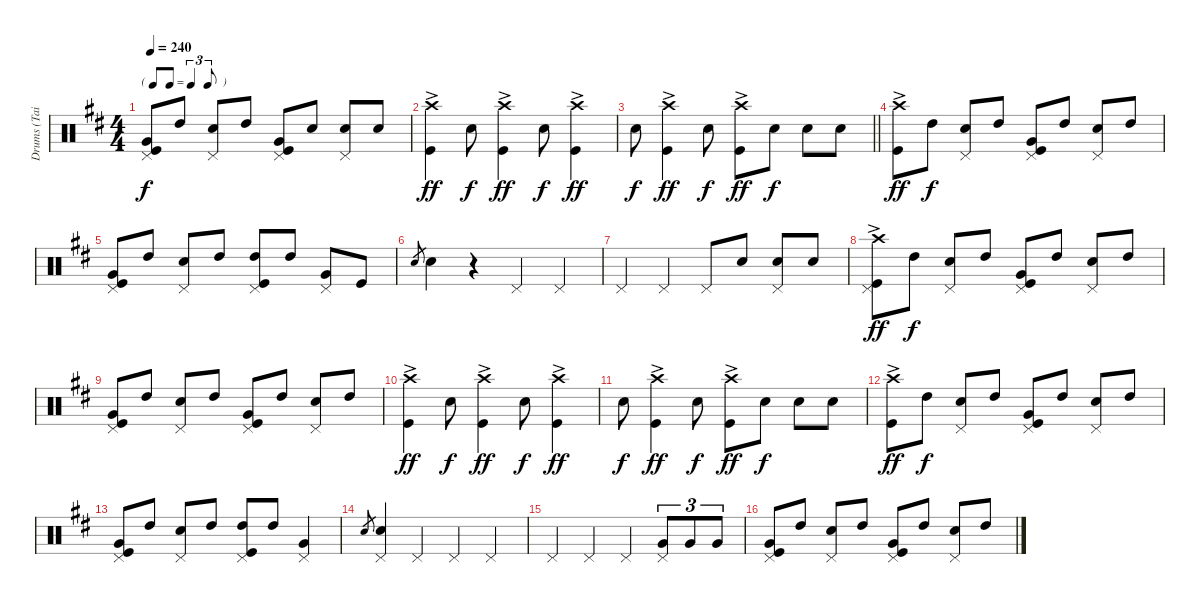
\track ("Drums (Tainaka Ritsu)" "Drums (Tai") {instrument percussion}
\staff {score}
\articulation defaults
\ts (4 4)
\tf triplet8th
\tempo 240
\clef neutral
\ks d
("Very Low Tom (hit)" "Kick (hit)" "Pedal Hi-Hat (hit)").8{dy f} "High Tom (hit)".8 ("Pedal Hi-Hat (hit)" "Snare (hit) 2").8 "High Tom (hit)".8 ("Pedal Hi-Hat (hit)" "Kick (hit)" "Very Low Tom (hit)").8 "Snare (hit) 2".8 ("Pedal Hi-Hat (hit)" "Snare (hit) 2").8 "Snare (hit) 2".8 |
("Crash high (hit)"{ac} "Kick (hit)").4{dy ff} "Snare (hit) 2".8{dy f} ("Kick (hit)" "Crash high (hit)"{ac}).4{dy ff} "Snare (hit) 2".8{dy f} ("Crash high (hit)"{ac} "Kick (hit)").4{dy ff} |
\barLineRight lightlight "Snare (hit) 2".8{dy f}
("Crash high (hit)"{ac} "Kick (hit)").4{dy ff} "Snare (hit) 2".8{dy f} ("Kick (hit)" "Crash high (hit)"{ac}).8{dy ff} "Snare (hit) 2".8{dy f} "Snare (hit) 2".8 "Snare (hit) 2".8 |
("Crash high (hit)"{ac} "Kick (hit)").8{dy ff} "High Tom (hit)".8{dy f} ("Snare (hit) 2" "Pedal Hi-Hat (hit)").8 "High Tom (hit)".8 ("Very Low Tom (hit)" "Kick (hit)" "Pedal Hi-Hat (hit)").8 "High Tom (hit)".8 ("Snare (hit) 2" "Pedal Hi-Hat (hit)").8 "High Tom (hit)".8 |
("Very Low Tom (hit)" "Kick (hit)" "Pedal Hi-Hat (hit)").8 "High Tom (hit)".8 ("Snare (hit) 2" "Pedal Hi-Hat (hit)").8 "High Tom (hit)".8 ("High Tom (hit)" "Kick (hit)" "Pedal Hi-Hat (hit)").8 "High Tom (hit)".8 ("Very Low Tom (hit)" "Pedal Hi-Hat (hit)").8 "Kick (hit)".8 |
"Snare (hit) 2".8{gr} "Snare (hit) 2".4 r.4 "Pedal Hi-Hat (hit)".4 "Pedal Hi-Hat (hit)".4 |
"Pedal Hi-Hat (hit)".4 "Pedal Hi-Hat (hit)".4 "Pedal Hi-Hat (hit)".8 "Snare (hit) 2".8 ("Snare (hit) 2" "Pedal Hi-Hat (hit)").8 "Snare (hit) 2".8 |
("Crash high (hit)"{ac} "Kick (hit)" "Pedal Hi-Hat (hit)").8{dy ff} "High Tom (hit)".8{dy f} ("Snare (hit) 2" "Pedal Hi-Hat (hit)").8 "High Tom (hit)".8 ("Very Low Tom (hit)" "Kick (hit)" "Pedal Hi-Hat (hit)").8 "High Tom (hit)".8 ("Snare (hit) 2" "Pedal Hi-Hat (hit)").8 "High Tom (hit)".8 |
("Very Low Tom (hit)" "Kick (hit)" "Pedal Hi-Hat (hit)").8 "High Tom (hit)".8 ("Snare (hit) 2" "Pedal Hi-Hat (hit)").8 "High Tom (hit)".8 ("Very Low Tom (hit)" "Kick (hit)" "Pedal Hi-Hat (hit)").8 "High Tom (hit)".8 ("Snare (hit) 2" "Pedal Hi-Hat (hit)").8 "High Tom (hit)".8 |
("Kick (hit)" "Crash high (hit)"{ac}).4{dy ff} "Snare (hit) 2".8{dy f} ("Crash high (hit)"{ac} "Kick (hit)").4{dy ff} "Snare (hit) 2".8{dy f} ("Kick (hit)" "Crash high (hit)"{ac}).4{dy ff} |
"Snare (hit) 2".8{dy f} ("Kick (hit)" "Crash high (hit)"{ac}).4{dy ff} "Snare (hit) 2".8{dy f} ("Crash high (hit)"{ac} "Kick (hit)").8{dy ff} "Snare (hit) 2".8{dy f} "Snare (hit) 2".8 "Snare (hit) 2".8 |
("Crash high (hit)"{ac} "Kick (hit)").8{dy ff} "High Tom (hit)".8{dy f} ("Snare (hit) 2" "Pedal Hi-Hat (hit)").8 "High Tom (hit)".8 ("Pedal Hi-Hat (hit)" "Kick (hit)" "Very Low Tom (hit)").8 "High Tom (hit)".8 ("Snare (hit) 2" "Pedal Hi-Hat (hit)").8 "High Tom (hit)".8 |
("Very Low Tom (hit)" "Kick (hit)" "Pedal Hi-Hat (hit)").8 "High Tom (hit)".8 ("Pedal Hi-Hat (hit)" "Snare (hit) 2").8 "High Tom (hit)".8 ("Kick (hit)" "Pedal Hi-Hat (hit)" "High Tom (hit)").8 "High Tom (hit)".8 ("Pedal Hi-Hat (hit)" "Very Low Tom (hit)").4 |
"Snare (hit) 2".8{gr} ("Snare (hit) 2" "Pedal Hi-Hat (hit)").4 "Pedal Hi-Hat (hit)".4 "Pedal Hi-Hat (hit)".4 "Pedal Hi-Hat (hit)".4 |
"Pedal Hi-Hat (hit)".4 "Pedal Hi-Hat (hit)".4 "Pedal Hi-Hat (hit)".4 ("Pedal Hi-Hat (hit)" "Very Low Tom (hit)").8{tu (3 2)} "Very Low Tom (hit)".8{tu (3 2)} "Very Low Tom (hit)".8{tu (3 2)} |
("Very Low Tom (hit)" "Pedal Hi-Hat (hit)" "Kick (hit)").8 "High Tom (hit)".8 ("Snare (hit) 2" "Pedal Hi-Hat (hit)").8 "High Tom (hit)".8 ("Kick (hit)" "Pedal Hi-Hat (hit)" "Very Low Tom (hit)").8 "High Tom (hit)".8 ("Pedal Hi-Hat (hit)" "Snare (hit) 2").8 "High Tom (hit)".8
